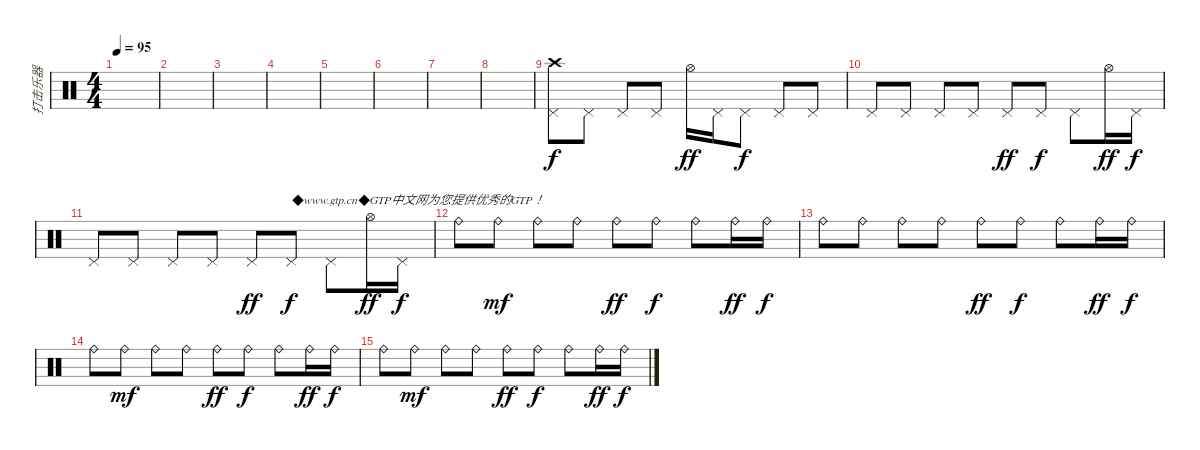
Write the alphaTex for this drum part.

\track ("打击乐器" "打击乐器") {instrument percussion}
\staff {score}
\articulation defaults
\ts (4 4)
\tempo 95
\clef neutral
\ks c
|
|
|
|
|
|
|
|
("Crash high (hit)" "Pedal Hi-Hat (hit)").8 "Pedal Hi-Hat (hit)".8 "Pedal Hi-Hat (hit)".8 "Pedal Hi-Hat (hit)".8 "Hi-Hat (open)".16{dy ff} "Pedal Hi-Hat (hit)".16 "Pedal Hi-Hat (hit)".8{dy f} "Pedal Hi-Hat (hit)".8 "Pedal Hi-Hat (hit)".8 |
"Pedal Hi-Hat (hit)".8 "Pedal Hi-Hat (hit)".8 "Pedal Hi-Hat (hit)".8 "Pedal Hi-Hat (hit)".8 "Pedal Hi-Hat (hit)".8{dy ff} "Pedal Hi-Hat (hit)".8{dy f} "Pedal Hi-Hat (hit)".8 "Hi-Hat (open)".16{dy ff} "Pedal Hi-Hat (hit)".16{dy f} |
"Pedal Hi-Hat (hit)".8 "Pedal Hi-Hat (hit)".8 "Pedal Hi-Hat (hit)".8 "Pedal Hi-Hat (hit)".8 "Pedal Hi-Hat (hit)".8{dy ff} "Pedal Hi-Hat (hit)".8{txt "◆www.gtp.cn◆GTP中文网为您提供优秀的GTP！" dy f} "Pedal Hi-Hat (hit)".8 "Hi-Hat (open)".16{dy ff} "Pedal Hi-Hat (hit)".16{dy f} |
"Ride (bell)".8 "Ride (bell)".8{dy mf} "Ride (bell)".8 "Ride (bell)".8 "Ride (bell)".8{dy ff} "Ride (bell)".8{dy f} "Ride (bell)".8 "Ride (bell)".16{dy ff} "Ride (bell)".16{dy f} |
"Ride (bell)".8 "Ride (bell)".8 "Ride (bell)".8 "Ride (bell)".8 "Ride (bell)".8{dy ff} "Ride (bell)".8{dy f} "Ride (bell)".8 "Ride (bell)".16{dy ff} "Ride (bell)".16{dy f} |
"Ride (bell)".8 "Ride (bell)".8{dy mf} "Ride (bell)".8 "Ride (bell)".8 "Ride (bell)".8{dy ff} "Ride (bell)".8{dy f} "Ride (bell)".8 "Ride (bell)".16{dy ff} "Ride (bell)".16{dy f} |
"Ride (bell)".8 "Ride (bell)".8{dy mf} "Ride (bell)".8 "Ride (bell)".8 "Ride (bell)".8{dy ff} "Ride (bell)".8{dy f} "Ride (bell)".8 "Ride (bell)".16{dy ff} "Ride (bell)".16{dy f}
